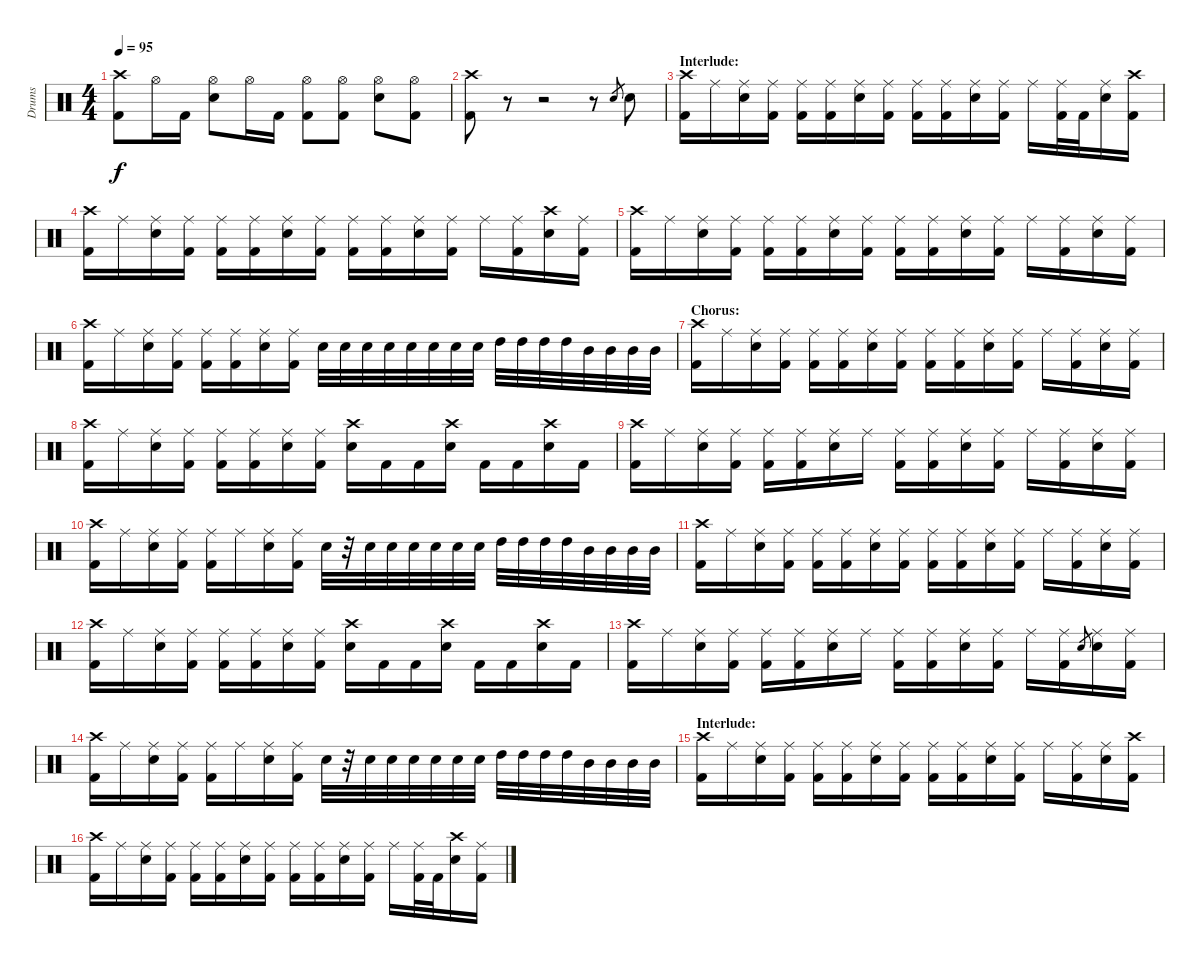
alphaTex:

\track ("Drums" "Drums") {instrument percussion}
\staff {score}
\articulation defaults
\ts (4 4)
\tempo 95
\clef neutral
\ks c
("Crash high (hit)" "Kick (hit) 2").8{dy f} "Hi-Hat (open)".16 "Kick (hit) 2".16 ("Hi-Hat (open)" "Electric Snare (hit)").8 "Hi-Hat (open)".16 "Kick (hit) 2".16 ("Hi-Hat (open)" "Kick (hit) 2").8 ("Hi-Hat (open)" "Kick (hit) 2").8 ("Hi-Hat (open)" "Electric Snare (hit)").8 ("Hi-Hat (open)" "Kick (hit) 2").8 |
("Crash high (hit)" "Kick (hit) 2").8 r.8 r.2 r.8 "Electric Snare (hit)".8{gr} "Electric Snare (hit)".8 |
\section ("" "Interlude:")
("Crash high (hit)" "Kick (hit) 2").16 "Ride (middle)".16 ("Ride (middle)" "Electric Snare (hit)").16 ("Ride (middle)" "Kick (hit) 2").16 ("Ride (middle)" "Kick (hit) 2").16 ("Ride (middle)" "Kick (hit) 2").16 ("Ride (middle)" "Electric Snare (hit)").16 ("Ride (middle)" "Kick (hit) 2").16 ("Ride (middle)" "Kick (hit) 2").16 ("Ride (middle)" "Kick (hit) 2").16 ("Ride (middle)" "Electric Snare (hit)").16 ("Ride (middle)" "Kick (hit) 2").16 "Ride (middle)".16 ("Ride (middle)" "Kick (hit) 2").32 "Kick (hit) 2".32 ("Ride (middle)" "Electric Snare (hit)").16 ("Crash high (hit)" "Kick (hit) 2").16 |
("Crash high (hit)" "Kick (hit) 2").16 "Ride (middle)".16 ("Ride (middle)" "Electric Snare (hit)").16 ("Ride (middle)" "Kick (hit) 2").16 ("Ride (middle)" "Kick (hit) 2").16 ("Ride (middle)" "Kick (hit) 2").16 ("Ride (middle)" "Electric Snare (hit)").16 ("Ride (middle)" "Kick (hit) 2").16 ("Ride (middle)" "Kick (hit) 2").16 ("Ride (middle)" "Kick (hit) 2").16 ("Ride (middle)" "Electric Snare (hit)").16 ("Ride (middle)" "Kick (hit) 2").16 "Ride (middle)".16 ("Ride (middle)" "Kick (hit) 2").16 ("Crash high (hit)" "Electric Snare (hit)").16 ("Ride (middle)" "Kick (hit) 2").16 |
("Crash high (hit)" "Kick (hit) 2").16 "Ride (middle)".16 ("Ride (middle)" "Electric Snare (hit)").16 ("Ride (middle)" "Kick (hit) 2").16 ("Ride (middle)" "Kick (hit) 2").16 ("Ride (middle)" "Kick (hit) 2").16 ("Ride (middle)" "Electric Snare (hit)").16 ("Ride (middle)" "Kick (hit) 2").16 ("Ride (middle)" "Kick (hit) 2").16 ("Ride (middle)" "Kick (hit) 2").16 ("Ride (middle)" "Electric Snare (hit)").16 ("Ride (middle)" "Kick (hit) 2").16 "Ride (middle)".16 ("Ride (middle)" "Kick (hit) 2").16 ("Ride (middle)" "Electric Snare (hit)").16 ("Ride (middle)" "Kick (hit) 2").16 |
("Crash high (hit)" "Kick (hit) 2").16 "Ride (middle)".16 ("Ride (middle)" "Electric Snare (hit)").16 ("Ride (middle)" "Kick (hit) 2").16 ("Ride (middle)" "Kick (hit) 2").16 ("Ride (middle)" "Kick (hit) 2").16 ("Ride (middle)" "Electric Snare (hit)").16 ("Ride (middle)" "Kick (hit) 2").16 "Electric Snare (hit)".32 "Electric Snare (hit)".32 "Electric Snare (hit)".32 "Electric Snare (hit)".32 "Electric Snare (hit)".32 "Electric Snare (hit)".32 "Electric Snare (hit)".32 "Electric Snare (hit)".32 "High Tom (hit)".32 "High Tom (hit)".32 "High Tom (hit)".32 "High Tom (hit)".32 "Mid Tom (hit)".32 "Mid Tom (hit)".32 "Mid Tom (hit)".32 "Mid Tom (hit)".32 |
\section ("" "Chorus:")
("Crash high (hit)" "Kick (hit) 2").16 "Ride (middle)".16 ("Ride (middle)" "Electric Snare (hit)").16 ("Ride (middle)" "Kick (hit) 2").16 ("Ride (middle)" "Kick (hit) 2").16 ("Ride (middle)" "Kick (hit) 2").16 ("Ride (middle)" "Electric Snare (hit)").16 ("Ride (middle)" "Kick (hit) 2").16 ("Ride (middle)" "Kick (hit) 2").16 ("Ride (middle)" "Kick (hit) 2").16 ("Ride (middle)" "Electric Snare (hit)").16 ("Ride (middle)" "Kick (hit) 2").16 "Ride (middle)".16 ("Ride (middle)" "Kick (hit) 2").16 ("Ride (middle)" "Electric Snare (hit)").16 ("Ride (middle)" "Kick (hit) 2").16 |
("Crash high (hit)" "Kick (hit) 2").16 "Ride (middle)".16 ("Ride (middle)" "Electric Snare (hit)").16 ("Ride (middle)" "Kick (hit) 2").16 ("Ride (middle)" "Kick (hit) 2").16 ("Ride (middle)" "Kick (hit) 2").16 ("Ride (middle)" "Electric Snare (hit)").16 ("Ride (middle)" "Kick (hit) 2").16 ("Crash high (hit)" "Electric Snare (hit)").16 "Kick (hit) 2".16 "Kick (hit) 2".16 ("Crash high (hit)" "Electric Snare (hit)").16 "Kick (hit) 2".16 "Kick (hit) 2".16 ("Crash high (hit)" "Electric Snare (hit)").16 "Kick (hit) 2".16 |
("Crash high (hit)" "Kick (hit) 2").16 "Ride (middle)".16 ("Ride (middle)" "Electric Snare (hit)").16 ("Ride (middle)" "Kick (hit) 2").16 ("Ride (middle)" "Kick (hit) 2").16 ("Ride (middle)" "Kick (hit) 2").16 ("Ride (middle)" "Electric Snare (hit)").16 "Ride (middle)".16 ("Ride (middle)" "Kick (hit) 2").16 ("Ride (middle)" "Kick (hit) 2").16 ("Ride (middle)" "Electric Snare (hit)").16 ("Ride (middle)" "Kick (hit) 2").16 "Ride (middle)".16 ("Ride (middle)" "Kick (hit) 2").16 ("Ride (middle)" "Electric Snare (hit)").16 ("Ride (middle)" "Kick (hit) 2").16 |
("Crash high (hit)" "Kick (hit) 2").16 "Ride (middle)".16 ("Ride (middle)" "Electric Snare (hit)").16 ("Ride (middle)" "Kick (hit) 2").16 ("Ride (middle)" "Kick (hit) 2").16 "Ride (middle)".16 ("Ride (middle)" "Electric Snare (hit)").16 ("Ride (middle)" "Kick (hit) 2").16 "Electric Snare (hit)".32 r.32 "Electric Snare (hit)".32 "Electric Snare (hit)".32 "Electric Snare (hit)".32 "Electric Snare (hit)".32 "Electric Snare (hit)".32 "Electric Snare (hit)".32 "High Tom (hit)".32 "High Tom (hit)".32 "High Tom (hit)".32 "High Tom (hit)".32 "Mid Tom (hit)".32 "Mid Tom (hit)".32 "Mid Tom (hit)".32 "Mid Tom (hit)".32 |
("Crash high (hit)" "Kick (hit) 2").16 "Ride (middle)".16 ("Ride (middle)" "Electric Snare (hit)").16 ("Ride (middle)" "Kick (hit) 2").16 ("Ride (middle)" "Kick (hit) 2").16 ("Ride (middle)" "Kick (hit) 2").16 ("Ride (middle)" "Electric Snare (hit)").16 ("Ride (middle)" "Kick (hit) 2").16 ("Ride (middle)" "Kick (hit) 2").16 ("Ride (middle)" "Kick (hit) 2").16 ("Ride (middle)" "Electric Snare (hit)").16 ("Ride (middle)" "Kick (hit) 2").16 "Ride (middle)".16 ("Ride (middle)" "Kick (hit) 2").16 ("Ride (middle)" "Electric Snare (hit)").16 ("Ride (middle)" "Kick (hit) 2").16 |
("Crash high (hit)" "Kick (hit) 2").16 "Ride (middle)".16 ("Ride (middle)" "Electric Snare (hit)").16 ("Ride (middle)" "Kick (hit) 2").16 ("Ride (middle)" "Kick (hit) 2").16 ("Ride (middle)" "Kick (hit) 2").16 ("Ride (middle)" "Electric Snare (hit)").16 ("Ride (middle)" "Kick (hit) 2").16 ("Crash high (hit)" "Electric Snare (hit)").16 "Kick (hit) 2".16 "Kick (hit) 2".16 ("Crash high (hit)" "Electric Snare (hit)").16 "Kick (hit) 2".16 "Kick (hit) 2".16 ("Crash high (hit)" "Electric Snare (hit)").16 "Kick (hit) 2".16 |
("Crash high (hit)" "Kick (hit) 2").16 "Ride (middle)".16 ("Ride (middle)" "Electric Snare (hit)").16 ("Ride (middle)" "Kick (hit) 2").16 ("Ride (middle)" "Kick (hit) 2").16 ("Ride (middle)" "Kick (hit) 2").16 ("Ride (middle)" "Electric Snare (hit)").16 "Ride (middle)".16 ("Ride (middle)" "Kick (hit) 2").16 ("Ride (middle)" "Kick (hit) 2").16 ("Ride (middle)" "Electric Snare (hit)").16 ("Ride (middle)" "Kick (hit) 2").16 "Ride (middle)".16 ("Ride (middle)" "Kick (hit) 2").16 "Electric Snare (hit)".8{gr} ("Ride (middle)" "Electric Snare (hit)").16 ("Ride (middle)" "Kick (hit) 2").16 |
("Crash high (hit)" "Kick (hit) 2").16 "Ride (middle)".16 ("Ride (middle)" "Electric Snare (hit)").16 ("Ride (middle)" "Kick (hit) 2").16 ("Ride (middle)" "Kick (hit) 2").16 "Ride (middle)".16 ("Ride (middle)" "Electric Snare (hit)").16 ("Ride (middle)" "Kick (hit) 2").16 "Electric Snare (hit)".32 r.32 "Electric Snare (hit)".32 "Electric Snare (hit)".32 "Electric Snare (hit)".32 "Electric Snare (hit)".32 "Electric Snare (hit)".32 "Electric Snare (hit)".32 "High Tom (hit)".32 "High Tom (hit)".32 "High Tom (hit)".32 "High Tom (hit)".32 "Mid Tom (hit)".32 "Mid Tom (hit)".32 "Mid Tom (hit)".32 "Mid Tom (hit)".32 |
\section ("" "Interlude:")
("Crash high (hit)" "Kick (hit) 2").16 "Ride (middle)".16 ("Ride (middle)" "Electric Snare (hit)").16 ("Ride (middle)" "Kick (hit) 2").16 ("Ride (middle)" "Kick (hit) 2").16 ("Ride (middle)" "Kick (hit) 2").16 ("Ride (middle)" "Electric Snare (hit)").16 ("Ride (middle)" "Kick (hit) 2").16 ("Ride (middle)" "Kick (hit) 2").16 ("Ride (middle)" "Kick (hit) 2").16 ("Ride (middle)" "Electric Snare (hit)").16 ("Ride (middle)" "Kick (hit) 2").16 "Ride (middle)".16 ("Ride (middle)" "Kick (hit) 2").16 ("Ride (middle)" "Electric Snare (hit)").16 ("Crash high (hit)" "Kick (hit) 2").16 |
("Crash high (hit)" "Kick (hit) 2").16 "Ride (middle)".16 ("Ride (middle)" "Electric Snare (hit)").16 ("Ride (middle)" "Kick (hit) 2").16 ("Ride (middle)" "Kick (hit) 2").16 ("Ride (middle)" "Kick (hit) 2").16 ("Ride (middle)" "Electric Snare (hit)").16 ("Ride (middle)" "Kick (hit) 2").16 ("Ride (middle)" "Kick (hit) 2").16 ("Ride (middle)" "Kick (hit) 2").16 ("Ride (middle)" "Electric Snare (hit)").16 ("Ride (middle)" "Kick (hit) 2").16 "Ride (middle)".16 ("Ride (middle)" "Kick (hit) 2").32 "Kick (hit) 2".32 ("Crash high (hit)" "Electric Snare (hit)").16 ("Ride (middle)" "Kick (hit) 2").16
